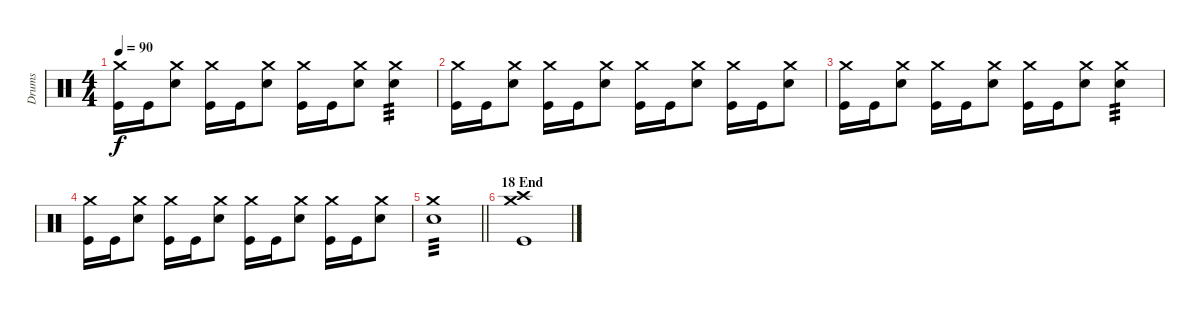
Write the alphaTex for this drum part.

\track ("Drums" "Drums") {instrument percussion}
\staff {score}
\articulation defaults
\ts (4 4)
\tempo 90
\clef neutral
\ks c
("Crash medium (hit)" "Kick (hit)").16{dy f} "Kick (hit)".16 ("Crash medium (hit)" "Electric Snare (hit)").8 ("Crash medium (hit)" "Kick (hit)").16 "Kick (hit)".16 ("Crash medium (hit)" "Electric Snare (hit)").8 ("Crash medium (hit)" "Kick (hit)").16 "Kick (hit)".16 ("Crash medium (hit)" "Electric Snare (hit)").8 ("Crash medium (hit)" "Electric Snare (hit)").4{tp 3} |
("Crash medium (hit)" "Kick (hit)").16 "Kick (hit)".16 ("Crash medium (hit)" "Electric Snare (hit)").8 ("Crash medium (hit)" "Kick (hit)").16 "Kick (hit)".16 ("Crash medium (hit)" "Electric Snare (hit)").8 ("Crash medium (hit)" "Kick (hit)").16 "Kick (hit)".16 ("Crash medium (hit)" "Electric Snare (hit)").8 ("Crash medium (hit)" "Kick (hit)").16 "Kick (hit)".16 ("Crash medium (hit)" "Electric Snare (hit)").8 |
("Crash medium (hit)" "Kick (hit)").16 "Kick (hit)".16 ("Crash medium (hit)" "Electric Snare (hit)").8 ("Crash medium (hit)" "Kick (hit)").16 "Kick (hit)".16 ("Crash medium (hit)" "Electric Snare (hit)").8 ("Crash medium (hit)" "Kick (hit)").16 "Kick (hit)".16 ("Crash medium (hit)" "Electric Snare (hit)").8 ("Crash medium (hit)" "Electric Snare (hit)").4{tp 3} |
("Crash medium (hit)" "Kick (hit)").16 "Kick (hit)".16 ("Crash medium (hit)" "Electric Snare (hit)").8 ("Crash medium (hit)" "Kick (hit)").16 "Kick (hit)".16 ("Crash medium (hit)" "Electric Snare (hit)").8 ("Crash medium (hit)" "Kick (hit)").16 "Kick (hit)".16 ("Crash medium (hit)" "Electric Snare (hit)").8 ("Crash medium (hit)" "Kick (hit)").16 "Kick (hit)".16 ("Crash medium (hit)" "Electric Snare (hit)").8 |
\barLineRight lightlight
("Crash medium (hit)" "Electric Snare (hit)").1{tp 3} |
\section ("" "18 End")
("Crash high (hit)" "Crash medium (hit)" "Kick (hit)").1
